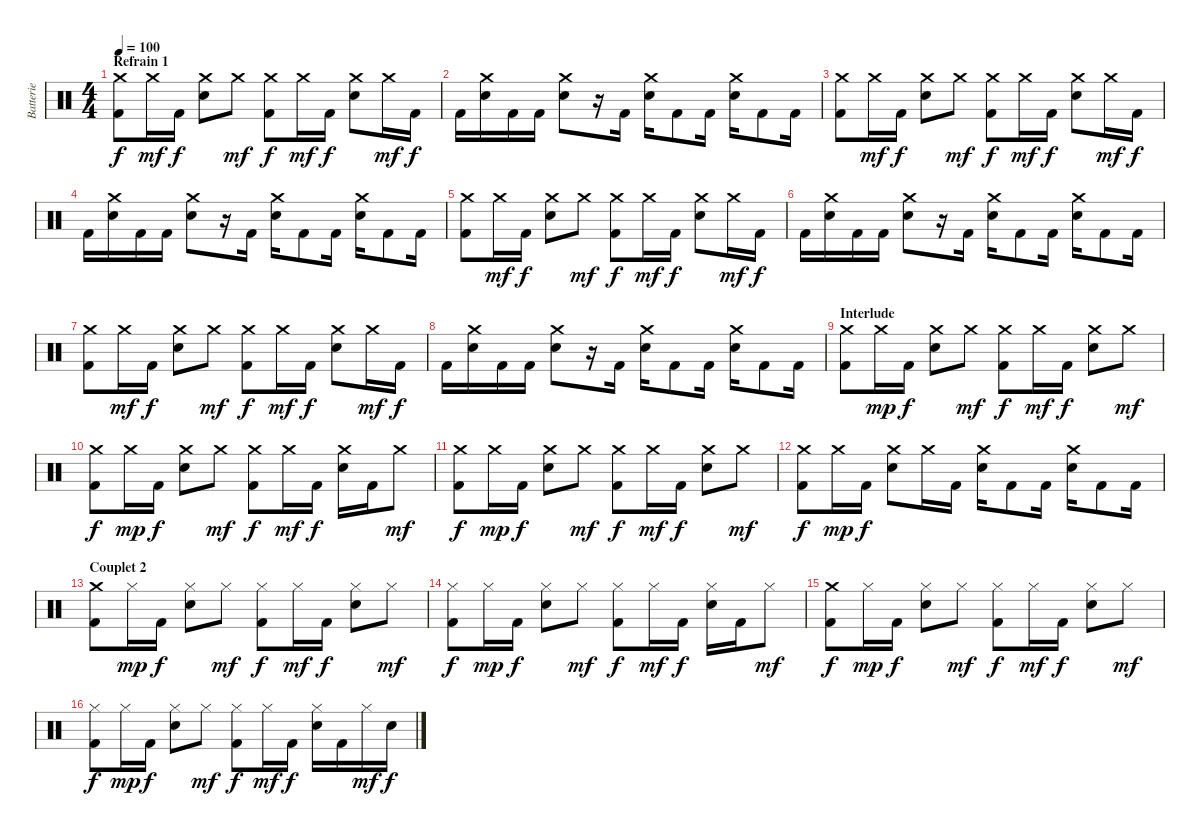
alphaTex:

\track ("Batterie" "Batterie") {instrument percussion}
\staff {score}
\articulation defaults
\ts (4 4)
\section ("" "Refrain 1")
\tempo 100
\clef neutral
\ks c
("Crash medium (hit)" "Kick (hit) 2").8{dy f} "Crash medium (hit)".16{dy mf} "Kick (hit) 2".16{dy f} ("Crash medium (hit)" "Electric Snare (hit)").8 "Crash medium (hit)".8{dy mf} ("Crash medium (hit)" "Kick (hit) 2").8{dy f} "Crash medium (hit)".16{dy mf} "Kick (hit) 2".16{dy f} ("Crash medium (hit)" "Electric Snare (hit)").8 "Crash medium (hit)".16{dy mf} "Kick (hit) 2".16{dy f} |
"Kick (hit) 2".16 ("Crash medium (hit)" "Electric Snare (hit)").16 "Kick (hit) 2".16 "Kick (hit) 2".16 ("Crash medium (hit)" "Electric Snare (hit)").8 r.16 "Kick (hit) 2".16 ("Crash medium (hit)" "Electric Snare (hit)").16 "Kick (hit) 2".8 "Kick (hit) 2".16 ("Crash medium (hit)" "Electric Snare (hit)").16 "Kick (hit) 2".8 "Kick (hit) 2".16 |
("Crash medium (hit)" "Kick (hit) 2").8 "Crash medium (hit)".16{dy mf} "Kick (hit) 2".16{dy f} ("Crash medium (hit)" "Electric Snare (hit)").8 "Crash medium (hit)".8{dy mf} ("Crash medium (hit)" "Kick (hit) 2").8{dy f} "Crash medium (hit)".16{dy mf} "Kick (hit) 2".16{dy f} ("Crash medium (hit)" "Electric Snare (hit)").8 "Crash medium (hit)".16{dy mf} "Kick (hit) 2".16{dy f} |
"Kick (hit) 2".16 ("Crash medium (hit)" "Electric Snare (hit)").16 "Kick (hit) 2".16 "Kick (hit) 2".16 ("Crash medium (hit)" "Electric Snare (hit)").8 r.16 "Kick (hit) 2".16 ("Crash medium (hit)" "Electric Snare (hit)").16 "Kick (hit) 2".8 "Kick (hit) 2".16 ("Crash medium (hit)" "Electric Snare (hit)").16 "Kick (hit) 2".8 "Kick (hit) 2".16 |
("Crash medium (hit)" "Kick (hit) 2").8 "Crash medium (hit)".16{dy mf} "Kick (hit) 2".16{dy f} ("Crash medium (hit)" "Electric Snare (hit)").8 "Crash medium (hit)".8{dy mf} ("Crash medium (hit)" "Kick (hit) 2").8{dy f} "Crash medium (hit)".16{dy mf} "Kick (hit) 2".16{dy f} ("Crash medium (hit)" "Electric Snare (hit)").8 "Crash medium (hit)".16{dy mf} "Kick (hit) 2".16{dy f} |
"Kick (hit) 2".16 ("Crash medium (hit)" "Electric Snare (hit)").16 "Kick (hit) 2".16 "Kick (hit) 2".16 ("Crash medium (hit)" "Electric Snare (hit)").8 r.16 "Kick (hit) 2".16 ("Crash medium (hit)" "Electric Snare (hit)").16 "Kick (hit) 2".8 "Kick (hit) 2".16 ("Crash medium (hit)" "Electric Snare (hit)").16 "Kick (hit) 2".8 "Kick (hit) 2".16 |
("Crash medium (hit)" "Kick (hit) 2").8 "Crash medium (hit)".16{dy mf} "Kick (hit) 2".16{dy f} ("Crash medium (hit)" "Electric Snare (hit)").8 "Crash medium (hit)".8{dy mf} ("Crash medium (hit)" "Kick (hit) 2").8{dy f} "Crash medium (hit)".16{dy mf} "Kick (hit) 2".16{dy f} ("Crash medium (hit)" "Electric Snare (hit)").8 "Crash medium (hit)".16{dy mf} "Kick (hit) 2".16{dy f} |
"Kick (hit) 2".16 ("Crash medium (hit)" "Electric Snare (hit)").16 "Kick (hit) 2".16 "Kick (hit) 2".16 ("Crash medium (hit)" "Electric Snare (hit)").8 r.16 "Kick (hit) 2".16 ("Crash medium (hit)" "Electric Snare (hit)").16 "Kick (hit) 2".8 "Kick (hit) 2".16 ("Crash medium (hit)" "Electric Snare (hit)").16 "Kick (hit) 2".8 "Kick (hit) 2".16 |
\section ("" "Interlude")
("Crash medium (hit)" "Kick (hit) 2").8 "Crash medium (hit)".16{dy mp} "Kick (hit) 2".16{dy f} ("Crash medium (hit)" "Electric Snare (hit)").8 "Crash medium (hit)".8{dy mf} ("Crash medium (hit)" "Kick (hit) 2").8{dy f} "Crash medium (hit)".16{dy mf} "Kick (hit) 2".16{dy f} ("Crash medium (hit)" "Electric Snare (hit)").8 "Crash medium (hit)".8{dy mf} |
("Crash medium (hit)" "Kick (hit) 2").8{dy f} "Crash medium (hit)".16{dy mp} "Kick (hit) 2".16{dy f} ("Crash medium (hit)" "Electric Snare (hit)").8 "Crash medium (hit)".8{dy mf} ("Crash medium (hit)" "Kick (hit) 2").8{dy f} "Crash medium (hit)".16{dy mf} "Kick (hit) 2".16{dy f} ("Crash medium (hit)" "Electric Snare (hit)").16 "Kick (hit) 2".16 "Crash medium (hit)".8{dy mf} |
("Crash medium (hit)" "Kick (hit) 2").8{dy f} "Crash medium (hit)".16{dy mp} "Kick (hit) 2".16{dy f} ("Crash medium (hit)" "Electric Snare (hit)").8 "Crash medium (hit)".8{dy mf} ("Crash medium (hit)" "Kick (hit) 2").8{dy f} "Crash medium (hit)".16{dy mf} "Kick (hit) 2".16{dy f} ("Crash medium (hit)" "Electric Snare (hit)").8 "Crash medium (hit)".8{dy mf} |
("Crash medium (hit)" "Kick (hit) 2").8{dy f} "Crash medium (hit)".16{dy mp} "Kick (hit) 2".16{dy f} ("Crash medium (hit)" "Electric Snare (hit)").8 "Crash medium (hit)".16 "Kick (hit) 2".16 ("Crash medium (hit)" "Electric Snare (hit)").16 "Kick (hit) 2".8 "Kick (hit) 2".16 ("Crash medium (hit)" "Electric Snare (hit)").16 "Kick (hit) 2".8 "Kick (hit) 2".16 |
\section ("" "Couplet 2")
("Crash medium (hit)" "Kick (hit) 2").8 "Hi-Hat (closed)".16{dy mp} "Kick (hit) 2".16{dy f} ("Hi-Hat (closed)" "Electric Snare (hit)").8 "Hi-Hat (closed)".8{dy mf} ("Hi-Hat (closed)" "Kick (hit) 2").8{dy f} "Hi-Hat (closed)".16{dy mf} "Kick (hit) 2".16{dy f} ("Hi-Hat (closed)" "Electric Snare (hit)").8 "Hi-Hat (closed)".8{dy mf} |
("Hi-Hat (closed)" "Kick (hit) 2").8{dy f} "Hi-Hat (closed)".16{dy mp} "Kick (hit) 2".16{dy f} ("Hi-Hat (closed)" "Electric Snare (hit)").8 "Hi-Hat (closed)".8{dy mf} ("Hi-Hat (closed)" "Kick (hit) 2").8{dy f} "Hi-Hat (closed)".16{dy mf} "Kick (hit) 2".16{dy f} ("Hi-Hat (closed)" "Electric Snare (hit)").16 "Kick (hit) 2".16 "Hi-Hat (closed)".8{dy mf} |
("Crash medium (hit)" "Kick (hit) 2").8{dy f} "Hi-Hat (closed)".16{dy mp} "Kick (hit) 2".16{dy f} ("Hi-Hat (closed)" "Electric Snare (hit)").8 "Hi-Hat (closed)".8{dy mf} ("Hi-Hat (closed)" "Kick (hit) 2").8{dy f} "Hi-Hat (closed)".16{dy mf} "Kick (hit) 2".16{dy f} ("Hi-Hat (closed)" "Electric Snare (hit)").8 "Hi-Hat (closed)".8{dy mf} |
("Hi-Hat (closed)" "Kick (hit) 2").8{dy f} "Hi-Hat (closed)".16{dy mp} "Kick (hit) 2".16{dy f} ("Hi-Hat (closed)" "Electric Snare (hit)").8 "Hi-Hat (closed)".8{dy mf} ("Hi-Hat (closed)" "Kick (hit) 2").8{dy f} "Hi-Hat (closed)".16{dy mf} "Kick (hit) 2".16{dy f} ("Hi-Hat (closed)" "Electric Snare (hit)").16 "Kick (hit) 2".16 "Hi-Hat (closed)".16{dy mf} "Electric Snare (hit)".16{dy f}
